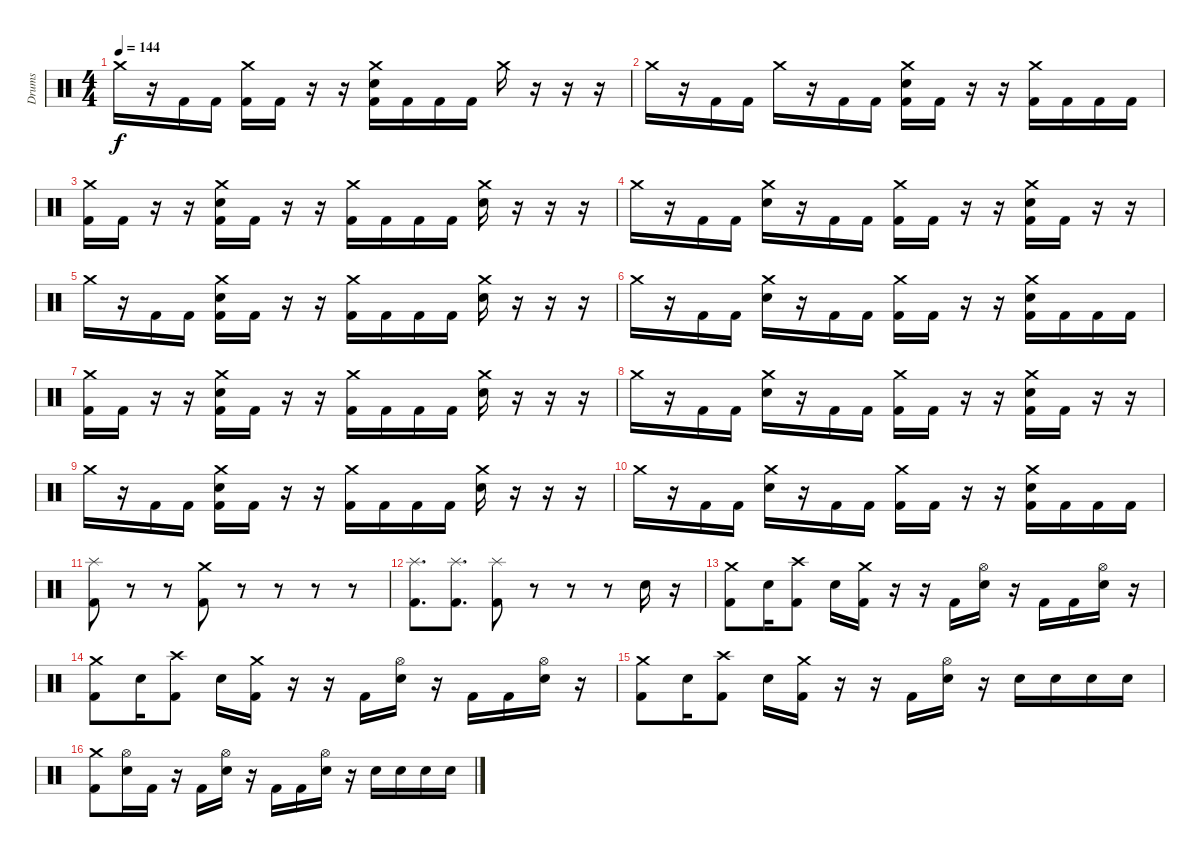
\track ("Drums" "Drums") {instrument percussion}
\staff {score}
\articulation defaults
\ts (4 4)
\tempo 144
\clef neutral
\ks c "Crash medium (hit)".16{dy f}
r.16 "Kick (hit) 2".16 "Kick (hit) 2".16 ("Crash medium (hit)" "Kick (hit) 2").16 "Kick (hit) 2".16 r.16 r.16 ("Crash medium (hit)" "Electric Snare (hit)" "Kick (hit) 2").16 "Kick (hit) 2".16 "Kick (hit) 2".16 "Kick (hit) 2".16 "Crash medium (hit)".16 r.16 r.16 r.16 |
"Crash medium (hit)".16 r.16 "Kick (hit) 2".16 "Kick (hit) 2".16 "Crash medium (hit)".16 r.16 "Kick (hit) 2".16 "Kick (hit) 2".16 ("Crash medium (hit)" "Electric Snare (hit)" "Kick (hit) 2").16 "Kick (hit) 2".16 r.16 r.16 ("Crash medium (hit)" "Kick (hit) 2").16 "Kick (hit) 2".16 "Kick (hit) 2".16 "Kick (hit) 2".16 |
("Crash medium (hit)" "Kick (hit) 2").16 "Kick (hit) 2".16 r.16 r.16 ("Crash medium (hit)" "Electric Snare (hit)" "Kick (hit) 2").16 "Kick (hit) 2".16 r.16 r.16 ("Crash medium (hit)" "Kick (hit) 2").16 "Kick (hit) 2".16 "Kick (hit) 2".16 "Kick (hit) 2".16 ("Crash medium (hit)" "Electric Snare (hit)").16 r.16 r.16 r.16 |
"Crash medium (hit)".16 r.16 "Kick (hit) 2".16 "Kick (hit) 2".16 ("Crash medium (hit)" "Electric Snare (hit)").16 r.16 "Kick (hit) 2".16 "Kick (hit) 2".16 ("Crash medium (hit)" "Kick (hit) 2").16 "Kick (hit) 2".16 r.16 r.16 ("Crash medium (hit)" "Electric Snare (hit)" "Kick (hit) 2").16 "Kick (hit) 2".16 r.16 r.16 |
"Crash medium (hit)".16 r.16 "Kick (hit) 2".16 "Kick (hit) 2".16 ("Crash medium (hit)" "Electric Snare (hit)" "Kick (hit) 2").16 "Kick (hit) 2".16 r.16 r.16 ("Crash medium (hit)" "Kick (hit) 2").16 "Kick (hit) 2".16 "Kick (hit) 2".16 "Kick (hit) 2".16 ("Crash medium (hit)" "Electric Snare (hit)").16 r.16 r.16 r.16 |
"Crash medium (hit)".16 r.16 "Kick (hit) 2".16 "Kick (hit) 2".16 ("Crash medium (hit)" "Electric Snare (hit)").16 r.16 "Kick (hit) 2".16 "Kick (hit) 2".16 ("Crash medium (hit)" "Kick (hit) 2").16 "Kick (hit) 2".16 r.16 r.16 ("Crash medium (hit)" "Electric Snare (hit)" "Kick (hit) 2").16 "Kick (hit) 2".16 "Kick (hit) 2".16 "Kick (hit) 2".16 |
("Crash medium (hit)" "Kick (hit) 2").16 "Kick (hit) 2".16 r.16 r.16 ("Crash medium (hit)" "Electric Snare (hit)" "Kick (hit) 2").16 "Kick (hit) 2".16 r.16 r.16 ("Crash medium (hit)" "Kick (hit) 2").16 "Kick (hit) 2".16 "Kick (hit) 2".16 "Kick (hit) 2".16 ("Crash medium (hit)" "Electric Snare (hit)").16 r.16 r.16 r.16 |
"Crash medium (hit)".16 r.16 "Kick (hit) 2".16 "Kick (hit) 2".16 ("Crash medium (hit)" "Electric Snare (hit)").16 r.16 "Kick (hit) 2".16 "Kick (hit) 2".16 ("Crash medium (hit)" "Kick (hit) 2").16 "Kick (hit) 2".16 r.16 r.16 ("Crash medium (hit)" "Electric Snare (hit)" "Kick (hit) 2").16 "Kick (hit) 2".16 r.16 r.16 |
"Crash medium (hit)".16 r.16 "Kick (hit) 2".16 "Kick (hit) 2".16 ("Crash medium (hit)" "Electric Snare (hit)" "Kick (hit) 2").16 "Kick (hit) 2".16 r.16 r.16 ("Crash medium (hit)" "Kick (hit) 2").16 "Kick (hit) 2".16 "Kick (hit) 2".16 "Kick (hit) 2".16 ("Crash medium (hit)" "Electric Snare (hit)").16 r.16 r.16 r.16 |
"Crash medium (hit)".16 r.16 "Kick (hit) 2".16 "Kick (hit) 2".16 ("Crash medium (hit)" "Electric Snare (hit)").16 r.16 "Kick (hit) 2".16 "Kick (hit) 2".16 ("Crash medium (hit)" "Kick (hit) 2").16 "Kick (hit) 2".16 r.16 r.16 ("Crash medium (hit)" "Electric Snare (hit)" "Kick (hit) 2").16 "Kick (hit) 2".16 "Kick (hit) 2".16 "Kick (hit) 2".16 |
("Splash (hit)" "Kick (hit) 2").8 r.8 r.8 ("Crash medium (hit)" "Kick (hit) 2").8 r.8 r.8 r.8 r.8 |
("Splash (hit)" "Kick (hit) 2").8{d} ("Splash (hit)" "Kick (hit) 2").8{d} ("Splash (hit)" "Kick (hit) 2").8 r.8 r.8 r.8 "Electric Snare (hit)".16 r.16 |
("Crash medium (hit)" "Kick (hit) 2").8 "Electric Snare (hit)".16 ("Crash high (hit)" "Kick (hit) 2").8 "Electric Snare (hit)".16 ("Crash medium (hit)" "Kick (hit) 2").16 r.16 r.16 "Kick (hit) 2".16 ("Hi-Hat (open)" "Electric Snare (hit)").16 r.16 "Kick (hit) 2".16 "Kick (hit) 2".16 ("Hi-Hat (open)" "Electric Snare (hit)").16 r.16 |
("Crash medium (hit)" "Kick (hit) 2").8 "Electric Snare (hit)".16 ("Crash high (hit)" "Kick (hit) 2").8 "Electric Snare (hit)".16 ("Crash medium (hit)" "Kick (hit) 2").16 r.16 r.16 "Kick (hit) 2".16 ("Hi-Hat (open)" "Electric Snare (hit)").16 r.16 "Kick (hit) 2".16 "Kick (hit) 2".16 ("Hi-Hat (open)" "Electric Snare (hit)").16 r.16 |
("Crash medium (hit)" "Kick (hit) 2").8 "Electric Snare (hit)".16 ("Crash high (hit)" "Kick (hit) 2").8 "Electric Snare (hit)".16 ("Crash medium (hit)" "Kick (hit) 2").16 r.16 r.16 "Kick (hit) 2".16 ("Hi-Hat (open)" "Electric Snare (hit)").16 r.16 "Electric Snare (hit)".16 "Electric Snare (hit)".16 "Electric Snare (hit)".16 "Electric Snare (hit)".16 |
("Crash medium (hit)" "Kick (hit) 2").8 ("Hi-Hat (open)" "Electric Snare (hit)").16 "Kick (hit) 2".16 r.16 "Kick (hit) 2".16 ("Hi-Hat (open)" "Electric Snare (hit)").16 r.16 "Kick (hit) 2".16 "Kick (hit) 2".16 ("Hi-Hat (open)" "Electric Snare (hit)").16 r.16 "Electric Snare (hit)".16 "Electric Snare (hit)".16 "Electric Snare (hit)".16 "Electric Snare (hit)".16
